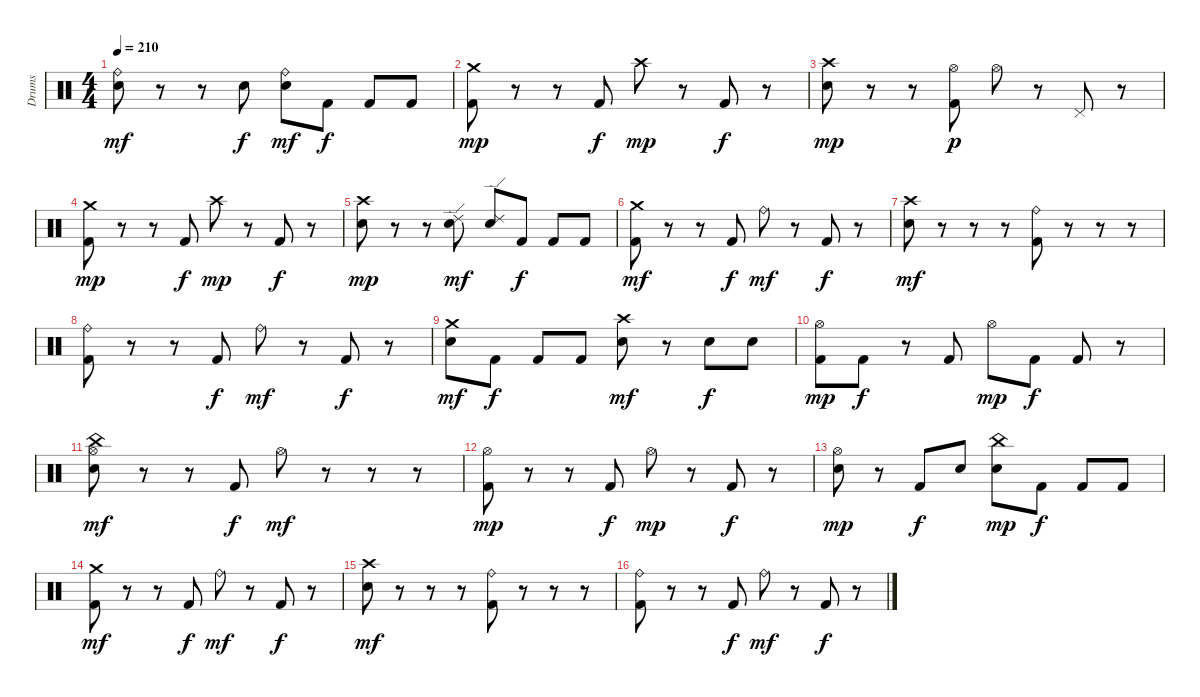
\track ("Drums" "Drums") {instrument percussion}
\staff {score}
\articulation defaults
\ts (4 4)
\tempo 210
\clef neutral
\ks c
("Snare (hit) 2" "Ride (bell)").8{dy mf} r.8 r.8 "Snare (hit) 2".8{dy f} ("Snare (hit) 2" "Ride (bell)").8{dy mf} "Kick (hit) 2".8{dy f} "Kick (hit) 2".8 "Kick (hit) 2".8 |
("Kick (hit) 2" "Crash medium (hit)").8{dy mp} r.8 r.8 "Kick (hit) 2".8{dy f} "Crash high (hit)".8{dy mp} r.8 "Kick (hit) 2".8{dy f} r.8 |
("Snare (hit) 2" "Crash high (hit)").8{dy mp} r.8 r.8 ("Kick (hit) 2" "Hi-Hat (open)").8{dy p} "Hi-Hat (open)".8 r.8 "Pedal Hi-Hat (hit)".8 r.8 |
("Kick (hit) 2" "Crash medium (hit)").8{dy mp} r.8 r.8 "Kick (hit) 2".8{dy f} "Crash high (hit)".8{dy mp} r.8 "Kick (hit) 2".8{dy f} r.8 |
("Snare (hit) 2" "Crash high (hit)").8{dy mp} r.8 r.8 ("Snare (hit) 2" "Ride (edge) 2").8{dy mf} ("Snare (hit) 2" "Ride (edge) 2").8 "Kick (hit) 2".8{dy f} "Kick (hit) 2".8 "Kick (hit) 2".8 |
("Kick (hit) 2" "Crash medium (hit)").8{dy mf} r.8 r.8 "Kick (hit) 2".8{dy f} "Ride (bell)".8{dy mf} r.8 "Kick (hit) 2".8{dy f} r.8 |
("Snare (hit) 2" "Crash high (hit)").8{dy mf} r.8 r.8 r.8 ("Kick (hit) 2" "Ride (bell)").8 r.8 r.8 r.8 |
("Kick (hit) 2" "Ride (bell)").8 r.8 r.8 "Kick (hit) 2".8{dy f} "Ride (bell)".8{dy mf} r.8 "Kick (hit) 2".8{dy f} r.8 |
("Snare (hit) 2" "Crash medium (hit)").8{dy mf} "Kick (hit) 2".8{dy f} "Kick (hit) 2".8 "Kick (hit) 2".8 ("Snare (hit) 2" "Crash high (hit)").8{dy mf} r.8 "Snare (hit) 2".8{dy f} "Snare (hit) 2".8 |
("Kick (hit) 2" "Hi-Hat (open)").8{dy mp} "Kick (hit) 2".8{dy f} r.8 "Kick (hit) 2".8 "Hi-Hat (open)".8{dy mp} "Kick (hit) 2".8{dy f} "Kick (hit) 2".8 r.8 |
("Snare (hit) 2" "Hi-Hat (open)" "China (hit)").8{dy mf} r.8 r.8 "Kick (hit) 2".8{dy f} "Hi-Hat (open)".8{dy mf} r.8 r.8 r.8 |
("Kick (hit) 2" "Hi-Hat (open)").8{dy mp} r.8 r.8 "Kick (hit) 2".8{dy f} "Hi-Hat (open)".8{dy mp} r.8 "Kick (hit) 2".8{dy f} r.8 |
("Snare (hit) 2" "Hi-Hat (open)").8{dy mp} r.8 "Kick (hit) 2".8{dy f} "Snare (hit) 2".8 ("Snare (hit) 2" "China (hit)").8{dy mp} "Kick (hit) 2".8{dy f} "Kick (hit) 2".8 "Kick (hit) 2".8 |
("Kick (hit) 2" "Crash medium (hit)").8{dy mf} r.8 r.8 "Kick (hit) 2".8{dy f} "Ride (bell)".8{dy mf} r.8 "Kick (hit) 2".8{dy f} r.8 |
("Snare (hit) 2" "Crash high (hit)").8{dy mf} r.8 r.8 r.8 ("Kick (hit) 2" "Ride (bell)").8 r.8 r.8 r.8 |
("Kick (hit) 2" "Ride (bell)").8 r.8 r.8 "Kick (hit) 2".8{dy f} "Ride (bell)".8{dy mf} r.8 "Kick (hit) 2".8{dy f} r.8
